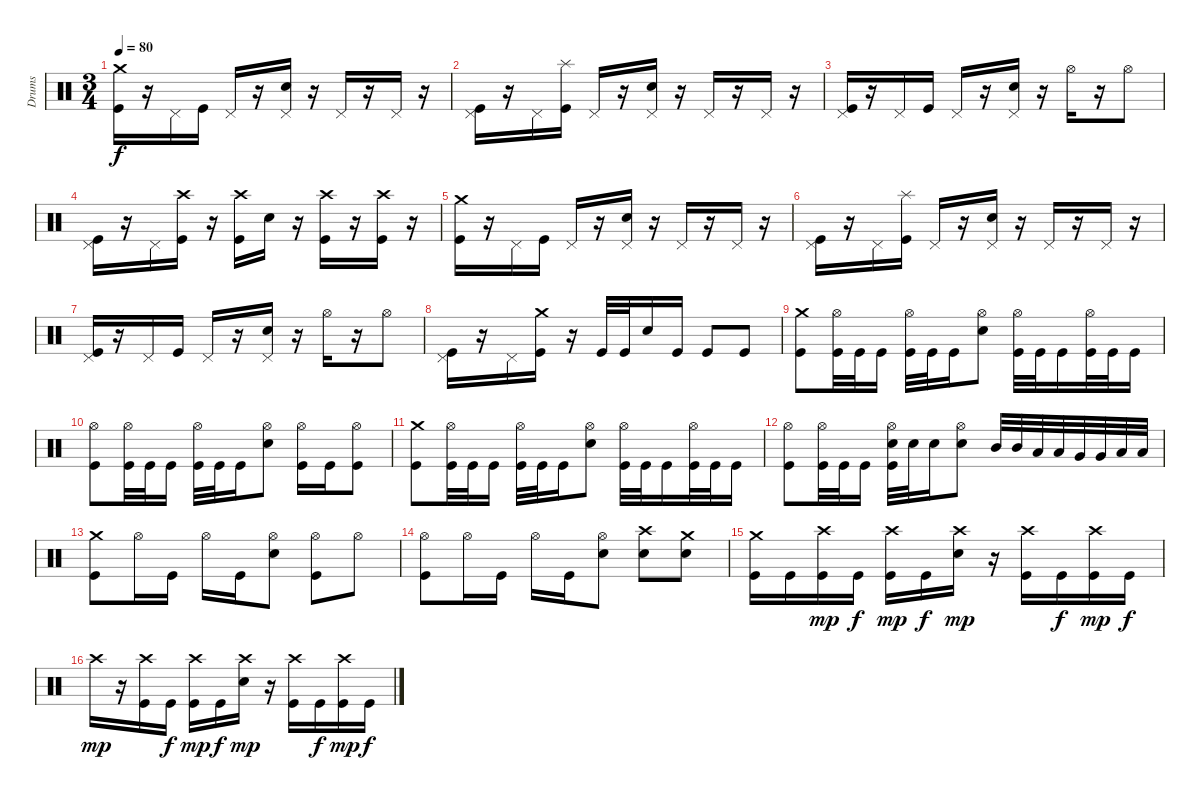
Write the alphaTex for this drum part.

\track ("Drums" "Drums") {instrument percussion}
\staff {score}
\articulation defaults
\ts (3 4)
\tempo 80
\clef neutral
\ks c
("Crash medium (hit)" "Kick (hit)").16{dy f} r.16 "Pedal Hi-Hat (hit)".16 "Kick (hit)".16 "Pedal Hi-Hat (hit)".16 r.16 ("Pedal Hi-Hat (hit)" "Electric Snare (hit)").16 r.16 "Pedal Hi-Hat (hit)".16 r.16 "Pedal Hi-Hat (hit)".16 r.16 |
("Pedal Hi-Hat (hit)" "Kick (hit)").16 r.16 "Pedal Hi-Hat (hit)".16 ("Splash (hit)" "Kick (hit)").16 "Pedal Hi-Hat (hit)".16 r.16 ("Pedal Hi-Hat (hit)" "Electric Snare (hit)").16 r.16 "Pedal Hi-Hat (hit)".16 r.16 "Pedal Hi-Hat (hit)".16 r.16 |
("Pedal Hi-Hat (hit)" "Kick (hit)").16 r.16 "Pedal Hi-Hat (hit)".16 "Kick (hit)".16 "Pedal Hi-Hat (hit)".16 r.16 ("Pedal Hi-Hat (hit)" "Electric Snare (hit)").16 r.16 "Hi-Hat (open)".16 r.16 "Hi-Hat (open)".8 |
("Pedal Hi-Hat (hit)" "Kick (hit)").16 r.16 "Pedal Hi-Hat (hit)".16 ("Crash high (hit)" "Kick (hit)").16 r.16 ("Crash high (hit)" "Kick (hit)").16 "Electric Snare (hit)".16 r.16 ("Crash high (hit)" "Kick (hit)").16 r.16 ("Crash high (hit)" "Kick (hit)").16 r.16 |
("Crash medium (hit)" "Kick (hit)").16 r.16 "Pedal Hi-Hat (hit)".16 "Kick (hit)".16 "Pedal Hi-Hat (hit)".16 r.16 ("Pedal Hi-Hat (hit)" "Electric Snare (hit)").16 r.16 "Pedal Hi-Hat (hit)".16 r.16 "Pedal Hi-Hat (hit)".16 r.16 |
("Pedal Hi-Hat (hit)" "Kick (hit)").16 r.16 "Pedal Hi-Hat (hit)".16 ("Splash (hit)" "Kick (hit)").16 "Pedal Hi-Hat (hit)".16 r.16 ("Pedal Hi-Hat (hit)" "Electric Snare (hit)").16 r.16 "Pedal Hi-Hat (hit)".16 r.16 "Pedal Hi-Hat (hit)".16 r.16 |
("Pedal Hi-Hat (hit)" "Kick (hit)").16 r.16 "Pedal Hi-Hat (hit)".16 "Kick (hit)".16 "Pedal Hi-Hat (hit)".16 r.16 ("Pedal Hi-Hat (hit)" "Electric Snare (hit)").16 r.16 "Hi-Hat (open)".16 r.16 "Hi-Hat (open)".8 |
("Pedal Hi-Hat (hit)" "Kick (hit)").16 r.16 "Pedal Hi-Hat (hit)".16 ("Crash medium (hit)" "Kick (hit)").16 r.16 "Kick (hit)".32 "Kick (hit)".32 "Electric Snare (hit)".16 "Kick (hit)".16 "Kick (hit)".8 "Kick (hit)".8 |
("Crash medium (hit)" "Kick (hit)").8 ("Hi-Hat (open)" "Kick (hit)").32 "Kick (hit)".32 "Kick (hit)".16 ("Hi-Hat (open)" "Kick (hit)").32 "Kick (hit)".32 "Kick (hit)".16 ("Hi-Hat (open)" "Electric Snare (hit)").8 ("Hi-Hat (open)" "Kick (hit)").32 "Kick (hit)".32 "Kick (hit)".16 ("Hi-Hat (open)" "Kick (hit)").32 "Kick (hit)".32 "Kick (hit)".16 |
("Hi-Hat (open)" "Kick (hit)").8 ("Hi-Hat (open)" "Kick (hit)").32 "Kick (hit)".32 "Kick (hit)".16 ("Hi-Hat (open)" "Kick (hit)").32 "Kick (hit)".32 "Kick (hit)".16 ("Hi-Hat (open)" "Electric Snare (hit)").8 ("Hi-Hat (open)" "Kick (hit)").16 "Kick (hit)".16 ("Hi-Hat (open)" "Kick (hit)").8 |
("Crash medium (hit)" "Kick (hit)").8 ("Hi-Hat (open)" "Kick (hit)").32 "Kick (hit)".32 "Kick (hit)".16 ("Hi-Hat (open)" "Kick (hit)").32 "Kick (hit)".32 "Kick (hit)".16 ("Hi-Hat (open)" "Electric Snare (hit)").8 ("Hi-Hat (open)" "Kick (hit)").32 "Kick (hit)".32 "Kick (hit)".16 ("Hi-Hat (open)" "Kick (hit)").32 "Kick (hit)".32 "Kick (hit)".16 |
("Hi-Hat (open)" "Kick (hit)").8 ("Hi-Hat (open)" "Kick (hit)").32 "Kick (hit)".32 "Kick (hit)".16 ("Hi-Hat (open)" "Electric Snare (hit)" "Kick (hit)").32 "Electric Snare (hit)".32 "Electric Snare (hit)".16 ("Hi-Hat (open)" "Electric Snare (hit)").8 "Mid Tom (hit)".32 "Mid Tom (hit)".32 "Low Tom (hit)".32 "Low Tom (hit)".32 "Very Low Tom (hit)".32 "Very Low Tom (hit)".32 "Low Floor Tom (hit)".32 "Low Floor Tom (hit)".32 |
("Crash medium (hit)" "Kick (hit)").8 "Hi-Hat (open)".16 "Kick (hit)".16 "Hi-Hat (open)".16 "Kick (hit)".16 ("Hi-Hat (open)" "Electric Snare (hit)").8 ("Hi-Hat (open)" "Kick (hit)").8 "Hi-Hat (open)".8 |
("Hi-Hat (open)" "Kick (hit)").8 "Hi-Hat (open)".16 "Kick (hit)".16 "Hi-Hat (open)".16 "Kick (hit)".16 ("Hi-Hat (open)" "Electric Snare (hit)").8 ("Crash high (hit)" "Electric Snare (hit)").8 ("Crash medium (hit)" "Electric Snare (hit)").8 |
("Crash medium (hit)" "Kick (hit)").16 "Kick (hit)".16 ("Crash high (hit)" "Kick (hit)").16{dy mp} "Kick (hit)".16{dy f} ("Crash high (hit)" "Kick (hit)").16{dy mp} "Kick (hit)".16{dy f} ("Crash high (hit)" "Electric Snare (hit)").16{dy mp} r.16 ("Crash high (hit)" "Kick (hit)").16 "Kick (hit)".16{dy f} ("Crash high (hit)" "Kick (hit)").16{dy mp} "Kick (hit)".16{dy f} |
"Crash high (hit)".16{dy mp} r.16 ("Crash high (hit)" "Kick (hit)").16 "Kick (hit)".16{dy f} ("Crash high (hit)" "Kick (hit)").16{dy mp} "Kick (hit)".16{dy f} ("Crash high (hit)" "Electric Snare (hit)").16{dy mp} r.16 ("Crash high (hit)" "Kick (hit)").16 "Kick (hit)".16{dy f} ("Crash high (hit)" "Kick (hit)").16{dy mp} "Kick (hit)".16{dy f}
